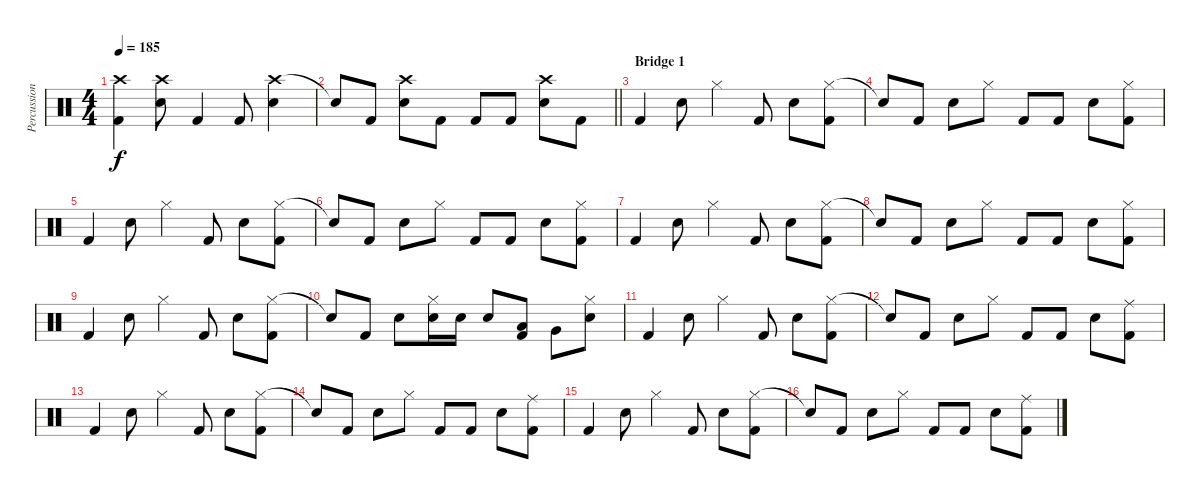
\track ("Percussion" "Percussion") {instrument percussion}
\staff {score}
\articulation defaults
\ts (4 4)
\tempo 185
\clef neutral
\ks c
("Crash high (hit)" "Kick (hit) 2").4{dy f} ("Crash high (hit)" "Snare (hit) 2").8 "Kick (hit) 2".4 "Kick (hit) 2".8 ("Crash high (hit)" "Snare (hit) 2").4 |
\barLineRight lightlight "Snare (hit)"{t}.8 "Kick (hit) 2".8
("Crash high (hit)" "Snare (hit) 2").8 "Kick (hit) 2".8 "Kick (hit) 2".8 "Kick (hit) 2".8 ("Crash high (hit)" "Snare (hit) 2").8 "Kick (hit) 2".8 |
\section ("" "Bridge 1")
"Kick (hit) 2".4 "Snare (hit) 2".8 "Hi-Hat (closed)".4 "Kick (hit) 2".8 "Snare (hit) 2".8 ("Hi-Hat (closed)" "Kick (hit) 2").8 |
"Snare (hit)"{t}.8 "Kick (hit) 2".8 "Snare (hit) 2".8 "Hi-Hat (closed)".8 "Kick (hit) 2".8 "Kick (hit) 2".8 "Snare (hit) 2".8 ("Hi-Hat (closed)" "Kick (hit) 2").8 |
"Kick (hit) 2".4 "Snare (hit) 2".8 "Hi-Hat (closed)".4 "Kick (hit) 2".8 "Snare (hit) 2".8 ("Hi-Hat (closed)" "Kick (hit) 2").8 |
"Snare (hit)"{t}.8 "Kick (hit) 2".8 "Snare (hit) 2".8 "Hi-Hat (closed)".8 "Kick (hit) 2".8 "Kick (hit) 2".8 "Snare (hit) 2".8 ("Hi-Hat (closed)" "Kick (hit) 2").8 |
"Kick (hit) 2".4 "Snare (hit) 2".8 "Hi-Hat (closed)".4 "Kick (hit) 2".8 "Snare (hit) 2".8 ("Hi-Hat (closed)" "Kick (hit) 2").8 |
"Snare (hit)"{t}.8 "Kick (hit) 2".8 "Snare (hit) 2".8 "Hi-Hat (closed)".8 "Kick (hit) 2".8 "Kick (hit) 2".8 "Snare (hit) 2".8 ("Hi-Hat (closed)" "Kick (hit) 2").8 |
"Kick (hit) 2".4 "Snare (hit) 2".8 "Hi-Hat (closed)".4 "Kick (hit) 2".8 "Snare (hit) 2".8 ("Hi-Hat (closed)" "Kick (hit) 2").8 |
"Snare (hit)"{t}.8 "Kick (hit) 2".8 "Snare (hit) 2".8 ("Hi-Hat (closed)" "Snare (hit) 2").16 "Snare (hit) 2".16 "Snare (hit) 2".8 ("Low Tom (hit)" "Kick (hit) 2").8 "Very Low Tom (hit)".8 ("Hi-Hat (closed)" "Snare (hit) 2").8 |
"Kick (hit) 2".4 "Snare (hit) 2".8 "Hi-Hat (closed)".4 "Kick (hit) 2".8 "Snare (hit) 2".8 ("Hi-Hat (closed)" "Kick (hit) 2").8 |
"Snare (hit)"{t}.8 "Kick (hit) 2".8 "Snare (hit) 2".8 "Hi-Hat (closed)".8 "Kick (hit) 2".8 "Kick (hit) 2".8 "Snare (hit) 2".8 ("Ride (middle)" "Kick (hit) 2").8 |
"Kick (hit) 2".4 "Snare (hit) 2".8 "Hi-Hat (closed)".4 "Kick (hit) 2".8 "Snare (hit) 2".8 ("Hi-Hat (closed)" "Kick (hit) 2").8 |
"Snare (hit)"{t}.8 "Kick (hit) 2".8 "Snare (hit) 2".8 "Hi-Hat (closed)".8 "Kick (hit) 2".8 "Kick (hit) 2".8 "Snare (hit) 2".8 ("Ride (middle)" "Kick (hit) 2").8 |
"Kick (hit) 2".4 "Snare (hit) 2".8 "Hi-Hat (closed)".4 "Kick (hit) 2".8 "Snare (hit) 2".8 ("Hi-Hat (closed)" "Kick (hit) 2").8 |
"Snare (hit)"{t}.8 "Kick (hit) 2".8 "Snare (hit) 2".8 "Hi-Hat (closed)".8 "Kick (hit) 2".8 "Kick (hit) 2".8 "Snare (hit) 2".8 ("Ride (middle)" "Kick (hit) 2").8
